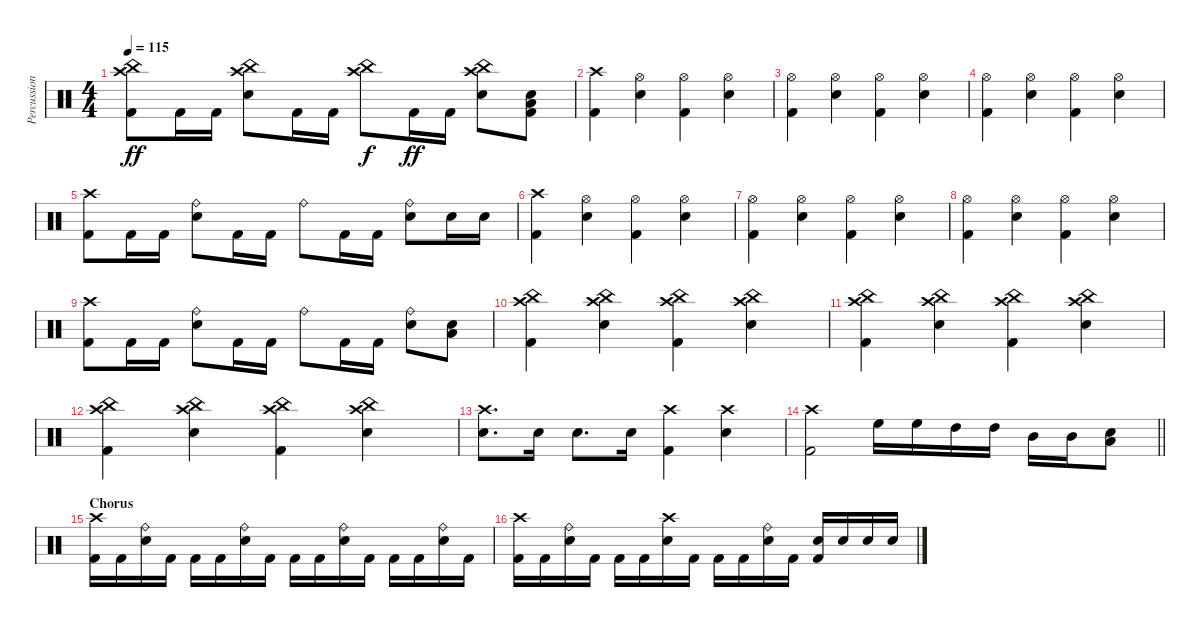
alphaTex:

\track ("Percussion" "Percussion") {instrument percussion}
\staff {score}
\articulation defaults
\ts (4 4)
\tempo 115
\clef neutral
\ks c
("Kick (hit) 2" "Crash high (hit)" "China (hit)").8{dy ff} "Kick (hit) 2".16 "Kick (hit) 2".16 ("Electric Snare (hit)" "Crash high (hit)" "China (hit)").8 "Kick (hit) 2".16 "Kick (hit) 2".16 ("Crash high (hit)" "China (hit)").8{dy f} "Kick (hit) 2".16{dy ff} "Kick (hit) 2".16 ("Electric Snare (hit)" "Crash high (hit)" "China (hit)").8 ("Electric Snare (hit)" "Low Tom (hit)" "Kick (hit) 2").8 |
("Kick (hit) 2" "Crash high (hit)").4 ("Electric Snare (hit)" "Hi-Hat (open)").4 ("Kick (hit) 2" "Hi-Hat (open)").4 ("Electric Snare (hit)" "Hi-Hat (open)").4 |
("Kick (hit) 2" "Hi-Hat (open)").4 ("Electric Snare (hit)" "Hi-Hat (open)").4 ("Kick (hit) 2" "Hi-Hat (open)").4 ("Electric Snare (hit)" "Hi-Hat (open)").4 |
("Kick (hit) 2" "Hi-Hat (open)").4 ("Electric Snare (hit)" "Hi-Hat (open)").4 ("Kick (hit) 2" "Hi-Hat (open)").4 ("Electric Snare (hit)" "Hi-Hat (open)").4 |
("Kick (hit) 2" "Crash high (hit)").8 "Kick (hit) 2".16 "Kick (hit) 2".16 ("Electric Snare (hit)" "Ride (bell)").8 "Kick (hit) 2".16 "Kick (hit) 2".16 "Ride (bell)".8 "Kick (hit) 2".16 "Kick (hit) 2".16 ("Electric Snare (hit)" "Ride (bell)").8 "Electric Snare (hit)".16 "Electric Snare (hit)".16 |
("Kick (hit) 2" "Crash high (hit)").4 ("Electric Snare (hit)" "Hi-Hat (open)").4 ("Kick (hit) 2" "Hi-Hat (open)").4 ("Electric Snare (hit)" "Hi-Hat (open)").4 |
("Kick (hit) 2" "Hi-Hat (open)").4 ("Electric Snare (hit)" "Hi-Hat (open)").4 ("Kick (hit) 2" "Hi-Hat (open)").4 ("Electric Snare (hit)" "Hi-Hat (open)").4 |
("Kick (hit) 2" "Hi-Hat (open)").4 ("Electric Snare (hit)" "Hi-Hat (open)").4 ("Kick (hit) 2" "Hi-Hat (open)").4 ("Electric Snare (hit)" "Hi-Hat (open)").4 |
("Kick (hit) 2" "Crash high (hit)").8 "Kick (hit) 2".16 "Kick (hit) 2".16 ("Electric Snare (hit)" "Ride (bell)").8 "Kick (hit) 2".16 "Kick (hit) 2".16 "Ride (bell)".8 "Kick (hit) 2".16 "Kick (hit) 2".16 ("Electric Snare (hit)" "Ride (bell)").8 ("Electric Snare (hit)" "Low Tom (hit)").8 |
("Kick (hit) 2" "Crash high (hit)" "China (hit)").4 ("Electric Snare (hit)" "Crash high (hit)" "China (hit)").4 ("Kick (hit) 2" "Crash high (hit)" "China (hit)").4 ("Electric Snare (hit)" "Crash high (hit)" "China (hit)").4 |
("Kick (hit) 2" "Crash high (hit)" "China (hit)").4 ("Electric Snare (hit)" "Crash high (hit)" "China (hit)").4 ("Kick (hit) 2" "Crash high (hit)" "China (hit)").4 ("Electric Snare (hit)" "Crash high (hit)" "China (hit)").4 |
("Kick (hit) 2" "Crash high (hit)" "China (hit)").4 ("Electric Snare (hit)" "Crash high (hit)" "China (hit)").4 ("Kick (hit) 2" "Crash high (hit)" "China (hit)").4 ("Electric Snare (hit)" "Crash high (hit)" "China (hit)").4 |
("Electric Snare (hit)" "Crash high (hit)").8{d} "Electric Snare (hit)".16 "Electric Snare (hit)".8{d} "Electric Snare (hit)".16 ("Kick (hit) 2" "Crash high (hit)").4 ("Electric Snare (hit)" "Crash high (hit)").4 |
\barLineRight lightlight
("Kick (hit) 2" "Crash high (hit)").2 "High Floor Tom (hit)".16 "High Floor Tom (hit)".16 "High Tom (hit)".16 "High Tom (hit)".16 "Mid Tom (hit)".16 "Mid Tom (hit)".16 ("Electric Snare (hit)" "Low Tom (hit)").8 |
\section ("" "Chorus")
("Kick (hit) 2" "Crash high (hit)").16 "Kick (hit) 2".16 ("Electric Snare (hit)" "Ride (bell)").16 "Kick (hit) 2".16 "Kick (hit) 2".16 "Kick (hit) 2".16 ("Electric Snare (hit)" "Ride (bell)").16 "Kick (hit) 2".16 "Kick (hit) 2".16 "Kick (hit) 2".16 ("Electric Snare (hit)" "Ride (bell)").16 "Kick (hit) 2".16 "Kick (hit) 2".16 "Kick (hit) 2".16 ("Electric Snare (hit)" "Ride (bell)").16 "Kick (hit) 2".16 |
("Kick (hit) 2" "Crash high (hit)").16 "Kick (hit) 2".16 ("Electric Snare (hit)" "Ride (bell)").16 "Kick (hit) 2".16 "Kick (hit) 2".16 "Kick (hit) 2".16 ("Electric Snare (hit)" "Crash high (hit)").16 "Kick (hit) 2".16 "Kick (hit) 2".16 "Kick (hit) 2".16 ("Electric Snare (hit)" "Ride (bell)").16 "Kick (hit) 2".16 ("Electric Snare (hit)" "Kick (hit) 2").16 "Electric Snare (hit)".16 "Electric Snare (hit)".16 "Electric Snare (hit)".16
